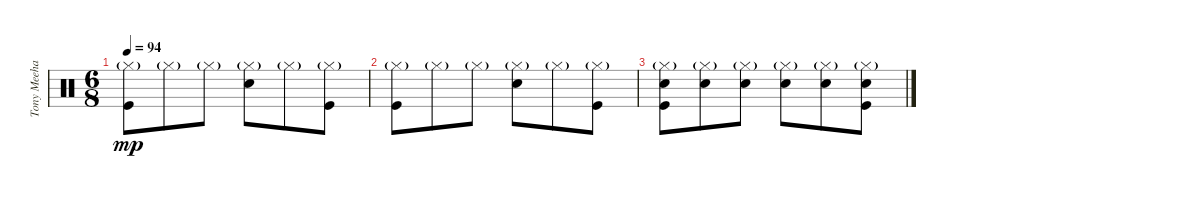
\track ("Tony Meehan (drums)" "Tony Meeha") {instrument percussion}
\staff {score}
\articulation defaults
\ts (6 8)
\tempo 94
\clef neutral
\ks c
("Kick (hit)" "Hi-Hat (closed)"{g}).8{dy mp} "Hi-Hat (closed)"{g}.8 "Hi-Hat (closed)"{g}.8 ("Electric Snare (hit)" "Hi-Hat (closed)"{g}).8 "Hi-Hat (closed)"{g}.8 ("Kick (hit)" "Hi-Hat (closed)"{g}).8 |
("Kick (hit)" "Hi-Hat (closed)"{g}).8 "Hi-Hat (closed)"{g}.8 "Hi-Hat (closed)"{g}.8 ("Electric Snare (hit)" "Hi-Hat (closed)"{g}).8 "Hi-Hat (closed)"{g}.8 ("Kick (hit)" "Hi-Hat (closed)"{g}).8 |
("Kick (hit)" "Electric Snare (hit)" "Hi-Hat (closed)"{g}).8 ("Electric Snare (hit)" "Hi-Hat (closed)"{g}).8 ("Electric Snare (hit)" "Hi-Hat (closed)"{g}).8 ("Electric Snare (hit)" "Hi-Hat (closed)"{g}).8 ("Electric Snare (hit)" "Hi-Hat (closed)"{g}).8 ("Kick (hit)" "Electric Snare (hit)" "Hi-Hat (closed)"{g}).8
